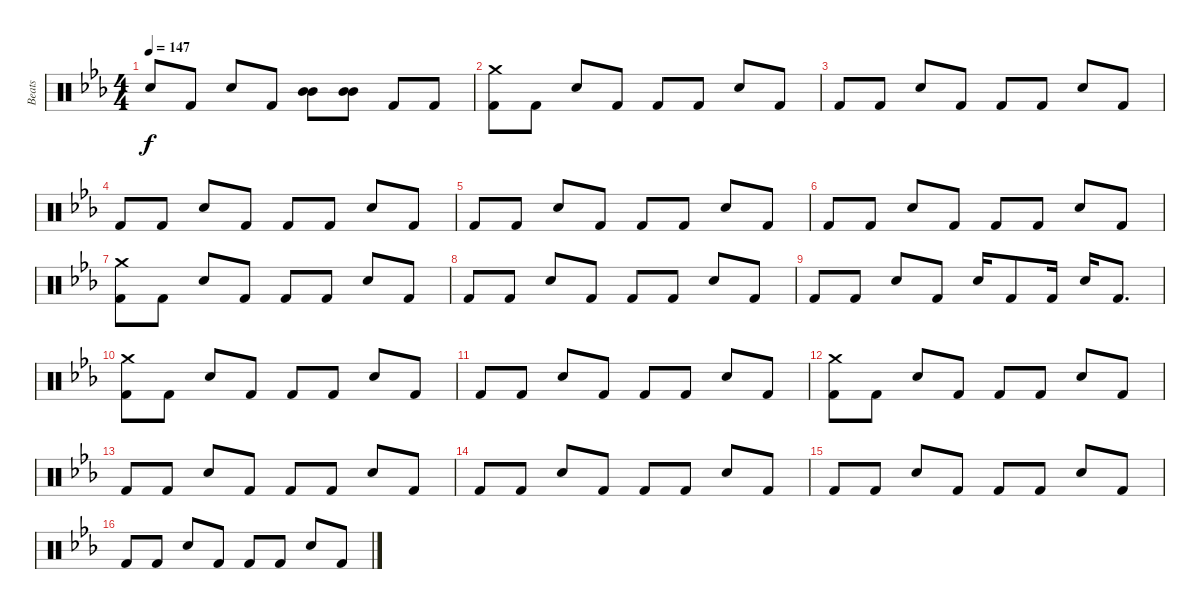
\track ("Beats" "Beats") {instrument percussion}
\staff {score}
\articulation defaults
\ts (4 4)
\tempo 147
\clef neutral
\ks eb "Snare (hit) 2".8{dy f} "Kick (hit) 2".8 "Snare (hit) 2".8 "Kick (hit) 2".8
("Mid Tom (hit)" "Mid Tom (hit)").8 ("Mid Tom (hit)" "Mid Tom (hit)").8 "Kick (hit) 2".8 "Kick (hit) 2".8 |
("Crash medium (hit)" "Kick (hit) 2").8 "Kick (hit) 2".8 "Snare (hit) 2".8 "Kick (hit) 2".8 "Kick (hit) 2".8 "Kick (hit) 2".8 "Snare (hit) 2".8 "Kick (hit) 2".8 |
"Kick (hit) 2".8 "Kick (hit) 2".8 "Snare (hit) 2".8 "Kick (hit) 2".8 "Kick (hit) 2".8 "Kick (hit) 2".8 "Snare (hit) 2".8 "Kick (hit) 2".8 |
"Kick (hit) 2".8 "Kick (hit) 2".8 "Snare (hit) 2".8 "Kick (hit) 2".8 "Kick (hit) 2".8 "Kick (hit) 2".8 "Snare (hit) 2".8 "Kick (hit) 2".8 |
"Kick (hit) 2".8 "Kick (hit) 2".8 "Snare (hit) 2".8 "Kick (hit) 2".8 "Kick (hit) 2".8 "Kick (hit) 2".8 "Snare (hit) 2".8 "Kick (hit) 2".8 |
"Kick (hit) 2".8 "Kick (hit) 2".8 "Snare (hit) 2".8 "Kick (hit) 2".8 "Kick (hit) 2".8 "Kick (hit) 2".8 "Snare (hit) 2".8 "Kick (hit) 2".8 |
("Crash medium (hit)" "Kick (hit) 2").8 "Kick (hit) 2".8 "Snare (hit) 2".8 "Kick (hit) 2".8 "Kick (hit) 2".8 "Kick (hit) 2".8 "Snare (hit) 2".8 "Kick (hit) 2".8 |
"Kick (hit) 2".8 "Kick (hit) 2".8 "Snare (hit) 2".8 "Kick (hit) 2".8 "Kick (hit) 2".8 "Kick (hit) 2".8 "Snare (hit) 2".8 "Kick (hit) 2".8 |
"Kick (hit) 2".8 "Kick (hit) 2".8 "Snare (hit) 2".8 "Kick (hit) 2".8 "Snare (hit) 2".16 "Kick (hit) 2".8 "Kick (hit) 2".16 "Snare (hit) 2".16 "Kick (hit) 2".8{d} |
("Crash medium (hit)" "Kick (hit) 2").8 "Kick (hit) 2".8 "Snare (hit) 2".8 "Kick (hit) 2".8 "Kick (hit) 2".8 "Kick (hit) 2".8 "Snare (hit) 2".8 "Kick (hit) 2".8 |
"Kick (hit) 2".8 "Kick (hit) 2".8 "Snare (hit) 2".8 "Kick (hit) 2".8 "Kick (hit) 2".8 "Kick (hit) 2".8 "Snare (hit) 2".8 "Kick (hit) 2".8 |
("Crash medium (hit)" "Kick (hit) 2").8 "Kick (hit) 2".8 "Snare (hit) 2".8 "Kick (hit) 2".8 "Kick (hit) 2".8 "Kick (hit) 2".8 "Snare (hit) 2".8 "Kick (hit) 2".8 |
"Kick (hit) 2".8 "Kick (hit) 2".8 "Snare (hit) 2".8 "Kick (hit) 2".8 "Kick (hit) 2".8 "Kick (hit) 2".8 "Snare (hit) 2".8 "Kick (hit) 2".8 |
"Kick (hit) 2".8 "Kick (hit) 2".8 "Snare (hit) 2".8 "Kick (hit) 2".8 "Kick (hit) 2".8 "Kick (hit) 2".8 "Snare (hit) 2".8 "Kick (hit) 2".8 |
"Kick (hit) 2".8 "Kick (hit) 2".8 "Snare (hit) 2".8 "Kick (hit) 2".8 "Kick (hit) 2".8 "Kick (hit) 2".8 "Snare (hit) 2".8 "Kick (hit) 2".8 |
"Kick (hit) 2".8 "Kick (hit) 2".8 "Snare (hit) 2".8 "Kick (hit) 2".8 "Kick (hit) 2".8 "Kick (hit) 2".8 "Snare (hit) 2".8 "Kick (hit) 2".8
